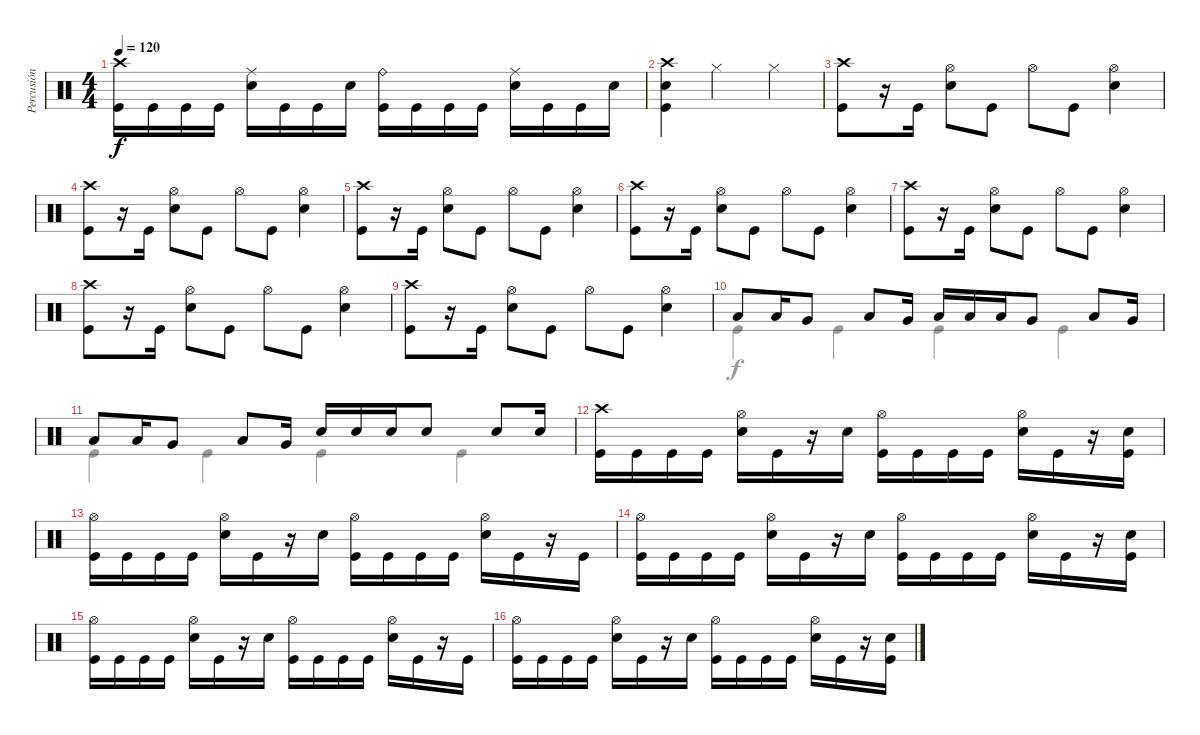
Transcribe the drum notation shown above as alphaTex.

\track ("Percusión" "Percusión") {instrument percussion}
\staff {score}
\articulation defaults
\voice
\ts (4 4)
\tempo 120
\clef neutral
\ks c
("Crash high (hit)" "Kick (hit)").16{dy f} "Kick (hit)".16 "Kick (hit)".16 "Kick (hit)".16 ("Ride (middle)" "Snare (hit) 2").16 "Kick (hit)".16 "Kick (hit)".16 "Snare (hit) 2".16 ("Ride (bell)" "Kick (hit)").16 "Kick (hit)".16 "Kick (hit)".16 "Kick (hit)".16 ("Ride (middle)" "Snare (hit) 2").16 "Kick (hit)".16 "Kick (hit)".16 "Snare (hit) 2".16 |
("Crash high (hit)" "Snare (hit) 2" "Kick (hit)").4 "Hi-Hat (closed)".2 "Hi-Hat (closed)".4 |
("Crash high (hit)" "Kick (hit)").8 r.16 "Kick (hit)".16 ("Hi-Hat (open)" "Snare (hit) 2").8 "Kick (hit)".8 "Hi-Hat (open)".8 "Kick (hit)".8 ("Hi-Hat (open)" "Snare (hit) 2").4 |
("Crash high (hit)" "Kick (hit)").8 r.16 "Kick (hit)".16 ("Hi-Hat (open)" "Snare (hit) 2").8 "Kick (hit)".8 "Hi-Hat (open)".8 "Kick (hit)".8 ("Hi-Hat (open)" "Snare (hit) 2").4 |
("Crash high (hit)" "Kick (hit)").8 r.16 "Kick (hit)".16 ("Hi-Hat (open)" "Snare (hit) 2").8 "Kick (hit)".8 "Hi-Hat (open)".8 "Kick (hit)".8 ("Hi-Hat (open)" "Snare (hit) 2").4 |
("Crash high (hit)" "Kick (hit)").8 r.16 "Kick (hit)".16 ("Hi-Hat (open)" "Snare (hit) 2").8 "Kick (hit)".8 "Hi-Hat (open)".8 "Kick (hit)".8 ("Hi-Hat (open)" "Snare (hit) 2").4 |
("Crash high (hit)" "Kick (hit)").8 r.16 "Kick (hit)".16 ("Hi-Hat (open)" "Snare (hit) 2").8 "Kick (hit)".8 "Hi-Hat (open)".8 "Kick (hit)".8 ("Hi-Hat (open)" "Snare (hit) 2").4 |
("Crash high (hit)" "Kick (hit)").8 r.16 "Kick (hit)".16 ("Hi-Hat (open)" "Snare (hit) 2").8 "Kick (hit)".8 "Hi-Hat (open)".8 "Kick (hit)".8 ("Hi-Hat (open)" "Snare (hit) 2").4 |
("Crash high (hit)" "Kick (hit)").8 r.16 "Kick (hit)".16 ("Hi-Hat (open)" "Snare (hit) 2").8 "Kick (hit)".8 "Hi-Hat (open)".8 "Kick (hit)".8 ("Hi-Hat (open)" "Snare (hit) 2").4 |
"Low Floor Tom (hit)".8 "Low Floor Tom (hit)".16 "Very Low Tom (hit)".8 "Low Floor Tom (hit)".8 "Very Low Tom (hit)".16 "Low Floor Tom (hit)".16 "Low Floor Tom (hit)".16 "Low Floor Tom (hit)".16 "Very Low Tom (hit)".8 "Low Floor Tom (hit)".8 "Very Low Tom (hit)".16 |
"Low Floor Tom (hit)".8 "Low Floor Tom (hit)".16 "Very Low Tom (hit)".8 "Low Floor Tom (hit)".8 "Very Low Tom (hit)".16 "Snare (hit) 2".16 "Snare (hit) 2".16 "Snare (hit) 2".16 "Snare (hit) 2".8 "Snare (hit) 2".8 "Snare (hit) 2".16 |
("Crash high (hit)" "Kick (hit)").16 "Kick (hit)".16 "Kick (hit)".16 "Kick (hit)".16 ("Hi-Hat (open)" "Snare (hit) 2").16 "Kick (hit)".16 r.16 "Snare (hit) 2".16 ("Hi-Hat (open)" "Kick (hit)").16 "Kick (hit)".16 "Kick (hit)".16 "Kick (hit)".16 ("Hi-Hat (open)" "Snare (hit) 2").16 "Kick (hit)".16 r.16 ("Snare (hit) 2" "Kick (hit)").16 |
("Hi-Hat (open)" "Kick (hit)").16 "Kick (hit)".16 "Kick (hit)".16 "Kick (hit)".16 ("Hi-Hat (open)" "Snare (hit) 2").16 "Kick (hit)".16 r.16 "Snare (hit) 2".16 ("Hi-Hat (open)" "Kick (hit)").16 "Kick (hit)".16 "Kick (hit)".16 "Kick (hit)".16 ("Hi-Hat (open)" "Snare (hit) 2").16 "Kick (hit)".16 r.16 "Kick (hit)".16 |
("Hi-Hat (open)" "Kick (hit)").16 "Kick (hit)".16 "Kick (hit)".16 "Kick (hit)".16 ("Hi-Hat (open)" "Snare (hit) 2").16 "Kick (hit)".16 r.16 "Snare (hit) 2".16 ("Hi-Hat (open)" "Kick (hit)").16 "Kick (hit)".16 "Kick (hit)".16 "Kick (hit)".16 ("Hi-Hat (open)" "Snare (hit) 2").16 "Kick (hit)".16 r.16 ("Snare (hit) 2" "Kick (hit)").16 |
("Hi-Hat (open)" "Kick (hit)").16 "Kick (hit)".16 "Kick (hit)".16 "Kick (hit)".16 ("Hi-Hat (open)" "Snare (hit) 2").16 "Kick (hit)".16 r.16 "Snare (hit) 2".16 ("Hi-Hat (open)" "Kick (hit)").16 "Kick (hit)".16 "Kick (hit)".16 "Kick (hit)".16 ("Hi-Hat (open)" "Snare (hit) 2").16 "Kick (hit)".16 r.16 "Kick (hit)".16 |
("Hi-Hat (open)" "Kick (hit)").16 "Kick (hit)".16 "Kick (hit)".16 "Kick (hit)".16 ("Hi-Hat (open)" "Snare (hit) 2").16 "Kick (hit)".16 r.16 "Snare (hit) 2".16 ("Hi-Hat (open)" "Kick (hit)").16 "Kick (hit)".16 "Kick (hit)".16 "Kick (hit)".16 ("Hi-Hat (open)" "Snare (hit) 2").16 "Kick (hit)".16 r.16 ("Snare (hit) 2" "Kick (hit)").16
\voice
\clef neutral
\ottava regular
\simile none
\ks c
|
|
|
|
|
|
|
|
|
"Kick (hit)".4 "Kick (hit)".4 "Kick (hit)".4 "Kick (hit)".4 |
"Kick (hit)".4 "Kick (hit)".4 "Kick (hit)".4 "Kick (hit)".4 |
|
|
|
|
